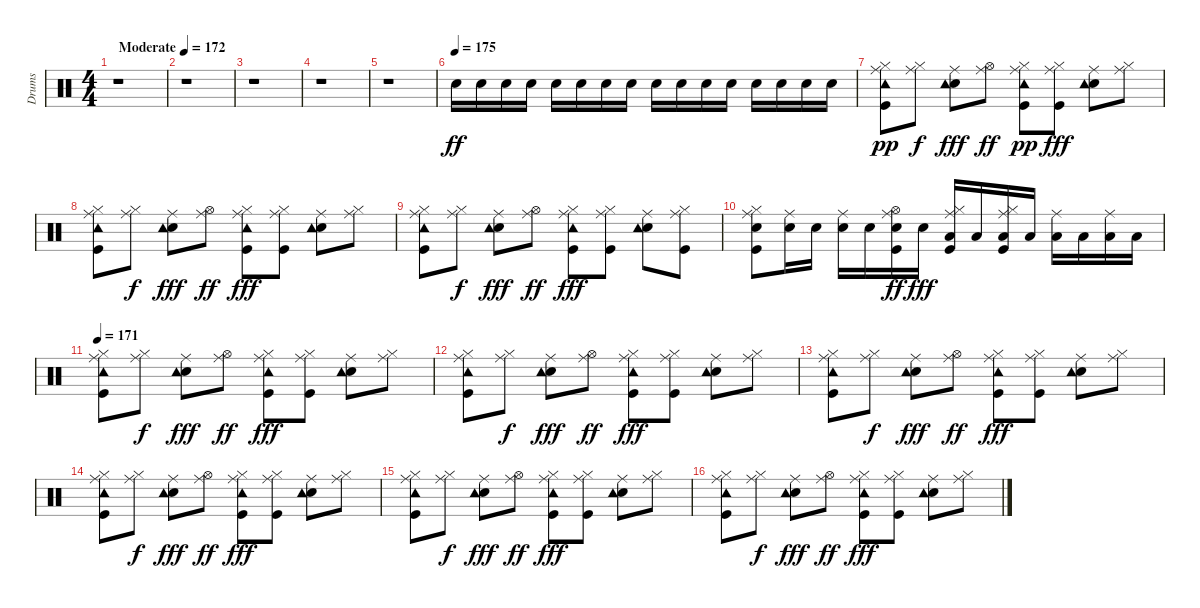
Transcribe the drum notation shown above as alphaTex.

\track ("Drums" "Drums") {instrument percussion}
\staff {score}
\articulation defaults
\ts (4 4)
\tempo (172 "Moderate")
\clef neutral
\ks c
r.1{dy ff} |
r.1 |
r.1 |
r.1 |
r.1 |
\tempo (175)
"Electric Snare (hit)".16 "Electric Snare (hit)".16 "Electric Snare (hit)".16 "Electric Snare (hit)".16 "Electric Snare (hit)".16 "Electric Snare (hit)".16 "Electric Snare (hit)".16 "Electric Snare (hit)".16 "Electric Snare (hit)".16 "Electric Snare (hit)".16 "Electric Snare (hit)".16 "Electric Snare (hit)".16 "Electric Snare (hit)".16 "Electric Snare (hit)".16 "Electric Snare (hit)".16 "Electric Snare (hit)".16 |
("Kick (hit)" "Hi-Hat (closed)" "Ride (middle)" "Tambourine (hit)").8{dy pp} ("Hi-Hat (closed)" "Ride (middle)").8{dy f} ("Snare (hit) 2" "Ride (middle)" "Tambourine (hit)").8{dy fff} ("Hi-Hat (open)" "Ride (middle)").8{dy ff} ("Kick (hit)" "Hi-Hat (closed)" "Ride (middle)" "Tambourine (hit)").8{dy pp} ("Kick (hit)" "Hi-Hat (closed)" "Ride (middle)").8{dy fff} ("Snare (hit) 2" "Ride (middle)" "Tambourine (hit)").8 ("Hi-Hat (closed)" "Ride (middle)").8 |
("Tambourine (hit)" "Kick (hit)" "Hi-Hat (closed)" "Ride (middle)").8 ("Hi-Hat (closed)" "Ride (middle)").8{dy f} ("Snare (hit) 2" "Ride (middle)" "Tambourine (hit)").8{dy fff} ("Hi-Hat (open)" "Ride (middle)").8{dy ff} ("Tambourine (hit)" "Kick (hit)" "Hi-Hat (closed)" "Ride (middle)").8{dy fff} ("Kick (hit)" "Hi-Hat (closed)" "Ride (middle)").8 ("Snare (hit) 2" "Ride (middle)" "Tambourine (hit)").8 ("Hi-Hat (closed)" "Ride (middle)").8 |
("Tambourine (hit)" "Kick (hit)" "Hi-Hat (closed)" "Ride (middle)").8 ("Hi-Hat (closed)" "Ride (middle)").8{dy f} ("Snare (hit) 2" "Ride (middle)" "Tambourine (hit)").8{dy fff} ("Hi-Hat (open)" "Ride (middle)").8{dy ff} ("Tambourine (hit)" "Kick (hit)" "Hi-Hat (closed)" "Ride (middle)").8{dy fff} ("Kick (hit)" "Hi-Hat (closed)" "Ride (middle)").8 ("Snare (hit) 2" "Ride (middle)" "Tambourine (hit)").8 ("Kick (hit)" "Hi-Hat (closed)" "Ride (middle)").8 |
("Kick (hit)" "Snare (hit) 2" "Hi-Hat (closed)" "Ride (middle)").8 ("Snare (hit) 2" "Ride (middle)").16 "Snare (hit) 2".16 ("Snare (hit) 2" "Ride (middle)").16 "Snare (hit) 2".16 ("Kick (hit)" "Snare (hit) 2" "Hi-Hat (open)" "Ride (middle)").16{dy ff} "Snare (hit) 2".16{dy fff} ("Kick (hit)" "Hi-Hat (closed)" "Low Tom (hit)" "Ride (middle)").16 "Low Tom (hit)".16 ("Kick (hit)" "Hi-Hat (closed)" "Low Tom (hit)" "Ride (middle)").16 "Low Tom (hit)".16 ("Low Floor Tom (hit)" "Ride (middle)").16 "Low Floor Tom (hit)".16 ("Low Floor Tom (hit)" "Ride (middle)").16 "Low Floor Tom (hit)".16 |
\tempo 171
("Tambourine (hit)" "Kick (hit)" "Hi-Hat (closed)" "Ride (middle)").8 ("Hi-Hat (closed)" "Ride (middle)").8{dy f} ("Snare (hit) 2" "Ride (middle)" "Tambourine (hit)").8{dy fff} ("Hi-Hat (open)" "Ride (middle)").8{dy ff} ("Tambourine (hit)" "Kick (hit)" "Hi-Hat (closed)" "Ride (middle)").8{dy fff} ("Kick (hit)" "Hi-Hat (closed)" "Ride (middle)").8 ("Snare (hit) 2" "Ride (middle)" "Tambourine (hit)").8 ("Hi-Hat (closed)" "Ride (middle)").8 |
("Tambourine (hit)" "Kick (hit)" "Hi-Hat (closed)" "Ride (middle)").8 ("Hi-Hat (closed)" "Ride (middle)").8{dy f} ("Snare (hit) 2" "Ride (middle)" "Tambourine (hit)").8{dy fff} ("Hi-Hat (open)" "Ride (middle)").8{dy ff} ("Tambourine (hit)" "Kick (hit)" "Hi-Hat (closed)" "Ride (middle)").8{dy fff} ("Kick (hit)" "Hi-Hat (closed)" "Ride (middle)").8 ("Snare (hit) 2" "Ride (middle)" "Tambourine (hit)").8 ("Hi-Hat (closed)" "Ride (middle)").8 |
("Tambourine (hit)" "Kick (hit)" "Hi-Hat (closed)" "Ride (middle)").8 ("Hi-Hat (closed)" "Ride (middle)").8{dy f} ("Snare (hit) 2" "Ride (middle)" "Tambourine (hit)").8{dy fff} ("Hi-Hat (open)" "Ride (middle)").8{dy ff} ("Tambourine (hit)" "Kick (hit)" "Hi-Hat (closed)" "Ride (middle)").8{dy fff} ("Kick (hit)" "Hi-Hat (closed)" "Ride (middle)").8 ("Snare (hit) 2" "Ride (middle)" "Tambourine (hit)").8 ("Hi-Hat (closed)" "Ride (middle)").8 |
("Tambourine (hit)" "Kick (hit)" "Hi-Hat (closed)" "Ride (middle)").8 ("Hi-Hat (closed)" "Ride (middle)").8{dy f} ("Snare (hit) 2" "Ride (middle)" "Tambourine (hit)").8{dy fff} ("Hi-Hat (open)" "Ride (middle)").8{dy ff} ("Tambourine (hit)" "Kick (hit)" "Hi-Hat (closed)" "Ride (middle)").8{dy fff} ("Kick (hit)" "Hi-Hat (closed)" "Ride (middle)").8 ("Snare (hit) 2" "Ride (middle)" "Tambourine (hit)").8 ("Hi-Hat (closed)" "Ride (middle)").8 |
("Tambourine (hit)" "Kick (hit)" "Hi-Hat (closed)" "Ride (middle)").8 ("Hi-Hat (closed)" "Ride (middle)").8{dy f} ("Snare (hit) 2" "Ride (middle)" "Tambourine (hit)").8{dy fff} ("Hi-Hat (open)" "Ride (middle)").8{dy ff} ("Tambourine (hit)" "Kick (hit)" "Hi-Hat (closed)" "Ride (middle)").8{dy fff} ("Kick (hit)" "Hi-Hat (closed)" "Ride (middle)").8 ("Snare (hit) 2" "Ride (middle)" "Tambourine (hit)").8 ("Hi-Hat (closed)" "Ride (middle)").8 |
("Tambourine (hit)" "Kick (hit)" "Hi-Hat (closed)" "Ride (middle)").8 ("Hi-Hat (closed)" "Ride (middle)").8{dy f} ("Snare (hit) 2" "Ride (middle)" "Tambourine (hit)").8{dy fff} ("Hi-Hat (open)" "Ride (middle)").8{dy ff} ("Tambourine (hit)" "Kick (hit)" "Hi-Hat (closed)" "Ride (middle)").8{dy fff} ("Kick (hit)" "Hi-Hat (closed)" "Ride (middle)").8 ("Snare (hit) 2" "Ride (middle)" "Tambourine (hit)").8 ("Hi-Hat (closed)" "Ride (middle)").8
